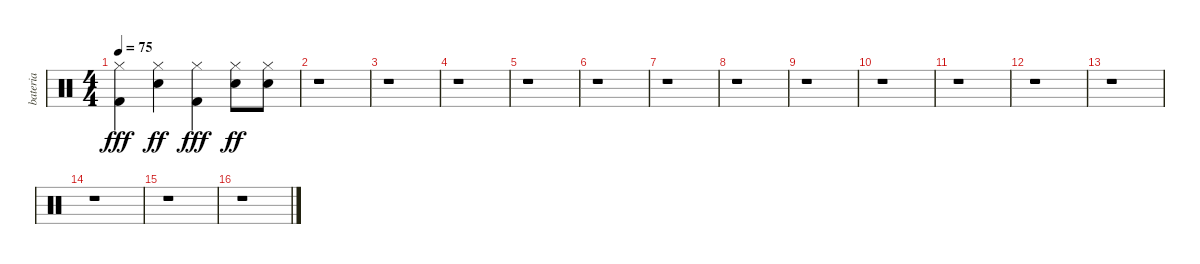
\track ("bateria" "bateria") {instrument percussion}
\staff {score}
\articulation defaults
\ts (4 4)
\tempo 75
\clef neutral
\ks c
("Hi-Hat (closed)" "Kick (hit) 2").4{dy fff} ("Hi-Hat (closed)" "Electric Snare (hit)").4{dy ff} ("Hi-Hat (closed)" "Kick (hit) 2").4{dy fff} ("Hi-Hat (closed)" "Electric Snare (hit)").8{dy ff} ("Hi-Hat (closed)" "Electric Snare (hit)").8 |
r.1 |
r.1 |
r.1 |
r.1 |
r.1 |
r.1 |
r.1 |
r.1 |
r.1 |
r.1 |
r.1 |
r.1 |
r.1 |
r.1 |
r.1
